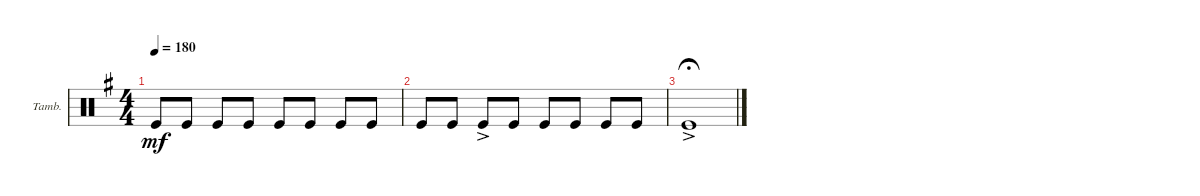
\defaultSystemsLayout 4
\bracketExtendMode groupsimilarinstruments
\firstSystemTrackNameOrientation horizontal
\otherSystemsTrackNameOrientation horizontal
\track ("Tambourine" "Tamb.") {instrument percussion}
\staff {score}
\articulation defaults
\ts (4 4)
\tempo 180
\clef neutral
\ks g "Kick (hit)".8{dy mf} "Kick (hit)".8 "Kick (hit)".8 "Kick (hit)".8 "Kick (hit)".8 "Kick (hit)".8 "Kick (hit)".8 "Kick (hit)".8
|
"Kick (hit)".8 "Kick (hit)".8 "Kick (hit)"{ac}.8 "Kick (hit)".8 "Kick (hit)".8 "Kick (hit)".8 "Kick (hit)".8 "Kick (hit)".8 |
"Kick (hit)"{ac}.1{fermata (medium 0.5)}
